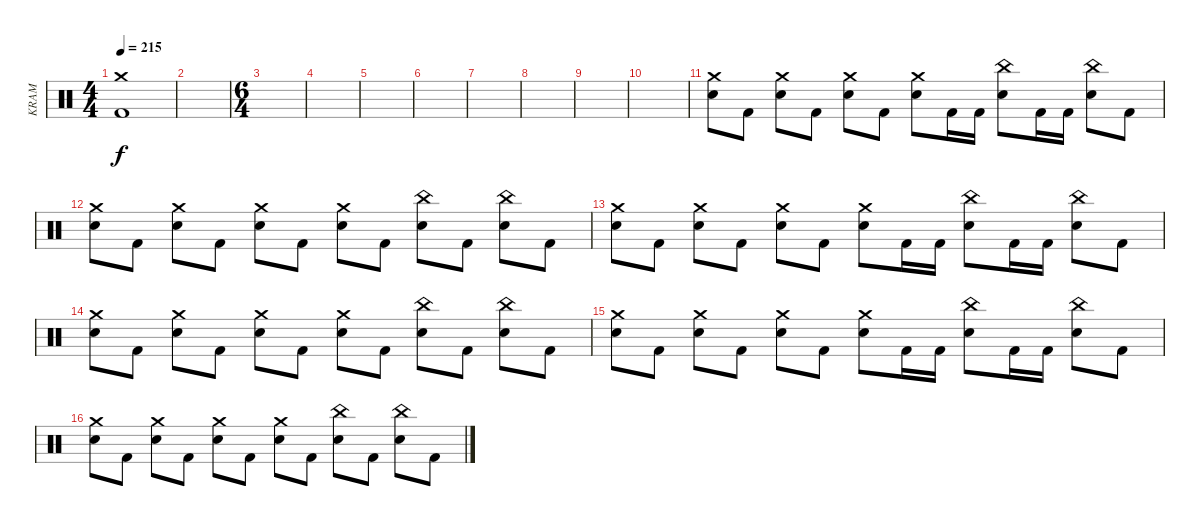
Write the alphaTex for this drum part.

\track ("KRAM" "KRAM") {instrument percussion}
\staff {score}
\articulation defaults
\ts (4 4)
\tempo 215
\clef neutral
\ks c
("Kick (hit) 2" "Crash medium (hit)").1{dy f} |
|
\ts (6 4)
|
|
|
|
|
|
|
|
("Electric Snare (hit)" "Crash medium (hit)").8 "Kick (hit) 2".8 ("Electric Snare (hit)" "Crash medium (hit)").8 "Kick (hit) 2".8 ("Electric Snare (hit)" "Crash medium (hit)").8 "Kick (hit) 2".8 ("Electric Snare (hit)" "Crash medium (hit)").8 "Kick (hit) 2".16 "Kick (hit) 2".16 ("Electric Snare (hit)" "China (hit)").8 "Kick (hit) 2".16 "Kick (hit) 2".16 ("Electric Snare (hit)" "China (hit)").8 "Kick (hit) 2".8 |
("Electric Snare (hit)" "Crash medium (hit)").8 "Kick (hit) 2".8 ("Electric Snare (hit)" "Crash medium (hit)").8 "Kick (hit) 2".8 ("Electric Snare (hit)" "Crash medium (hit)").8 "Kick (hit) 2".8 ("Electric Snare (hit)" "Crash medium (hit)").8 "Kick (hit) 2".8 ("Electric Snare (hit)" "China (hit)").8 "Kick (hit) 2".8 ("Electric Snare (hit)" "China (hit)").8 "Kick (hit) 2".8 |
("Electric Snare (hit)" "Crash medium (hit)").8 "Kick (hit) 2".8 ("Electric Snare (hit)" "Crash medium (hit)").8 "Kick (hit) 2".8 ("Electric Snare (hit)" "Crash medium (hit)").8 "Kick (hit) 2".8 ("Electric Snare (hit)" "Crash medium (hit)").8 "Kick (hit) 2".16 "Kick (hit) 2".16 ("Electric Snare (hit)" "China (hit)").8 "Kick (hit) 2".16 "Kick (hit) 2".16 ("Electric Snare (hit)" "China (hit)").8 "Kick (hit) 2".8 |
("Electric Snare (hit)" "Crash medium (hit)").8 "Kick (hit) 2".8 ("Electric Snare (hit)" "Crash medium (hit)").8 "Kick (hit) 2".8 ("Electric Snare (hit)" "Crash medium (hit)").8 "Kick (hit) 2".8 ("Electric Snare (hit)" "Crash medium (hit)").8 "Kick (hit) 2".8 ("Electric Snare (hit)" "China (hit)").8 "Kick (hit) 2".8 ("Electric Snare (hit)" "China (hit)").8 "Kick (hit) 2".8 |
("Electric Snare (hit)" "Crash medium (hit)").8 "Kick (hit) 2".8 ("Electric Snare (hit)" "Crash medium (hit)").8 "Kick (hit) 2".8 ("Electric Snare (hit)" "Crash medium (hit)").8 "Kick (hit) 2".8 ("Electric Snare (hit)" "Crash medium (hit)").8 "Kick (hit) 2".16 "Kick (hit) 2".16 ("Electric Snare (hit)" "China (hit)").8 "Kick (hit) 2".16 "Kick (hit) 2".16 ("Electric Snare (hit)" "China (hit)").8 "Kick (hit) 2".8 |
("Electric Snare (hit)" "Crash medium (hit)").8 "Kick (hit) 2".8 ("Electric Snare (hit)" "Crash medium (hit)").8 "Kick (hit) 2".8 ("Electric Snare (hit)" "Crash medium (hit)").8 "Kick (hit) 2".8 ("Electric Snare (hit)" "Crash medium (hit)").8 "Kick (hit) 2".8 ("Electric Snare (hit)" "China (hit)").8 "Kick (hit) 2".8 ("Electric Snare (hit)" "China (hit)").8 "Kick (hit) 2".8
